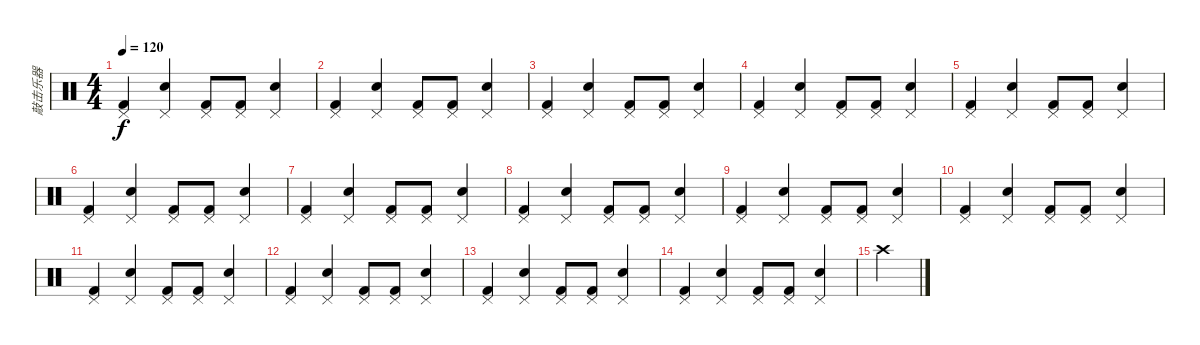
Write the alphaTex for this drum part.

\track ("敲击乐器" "敲击乐器") {instrument percussion}
\staff {score}
\articulation defaults
\ts (4 4)
\tempo 120
\clef neutral
\ks c
("Kick (hit) 2" "Pedal Hi-Hat (hit)").4{dy f} ("Snare (hit) 2" "Pedal Hi-Hat (hit)").4 ("Kick (hit) 2" "Pedal Hi-Hat (hit)").8 ("Kick (hit) 2" "Pedal Hi-Hat (hit)").8 ("Snare (hit) 2" "Pedal Hi-Hat (hit)").4 |
("Kick (hit) 2" "Pedal Hi-Hat (hit)").4 ("Snare (hit) 2" "Pedal Hi-Hat (hit)").4 ("Kick (hit) 2" "Pedal Hi-Hat (hit)").8 ("Kick (hit) 2" "Pedal Hi-Hat (hit)").8 ("Snare (hit) 2" "Pedal Hi-Hat (hit)").4 |
("Kick (hit) 2" "Pedal Hi-Hat (hit)").4 ("Snare (hit) 2" "Pedal Hi-Hat (hit)").4 ("Kick (hit) 2" "Pedal Hi-Hat (hit)").8 ("Kick (hit) 2" "Pedal Hi-Hat (hit)").8 ("Snare (hit) 2" "Pedal Hi-Hat (hit)").4 |
("Kick (hit) 2" "Pedal Hi-Hat (hit)").4 ("Snare (hit) 2" "Pedal Hi-Hat (hit)").4 ("Kick (hit) 2" "Pedal Hi-Hat (hit)").8 ("Kick (hit) 2" "Pedal Hi-Hat (hit)").8 ("Snare (hit) 2" "Pedal Hi-Hat (hit)").4 |
("Kick (hit) 2" "Pedal Hi-Hat (hit)").4 ("Snare (hit) 2" "Pedal Hi-Hat (hit)").4 ("Kick (hit) 2" "Pedal Hi-Hat (hit)").8 ("Kick (hit) 2" "Pedal Hi-Hat (hit)").8 ("Snare (hit) 2" "Pedal Hi-Hat (hit)").4 |
("Kick (hit) 2" "Pedal Hi-Hat (hit)").4 ("Snare (hit) 2" "Pedal Hi-Hat (hit)").4 ("Kick (hit) 2" "Pedal Hi-Hat (hit)").8 ("Kick (hit) 2" "Pedal Hi-Hat (hit)").8 ("Snare (hit) 2" "Pedal Hi-Hat (hit)").4 |
("Kick (hit) 2" "Pedal Hi-Hat (hit)").4 ("Snare (hit) 2" "Pedal Hi-Hat (hit)").4 ("Kick (hit) 2" "Pedal Hi-Hat (hit)").8 ("Kick (hit) 2" "Pedal Hi-Hat (hit)").8 ("Snare (hit) 2" "Pedal Hi-Hat (hit)").4 |
("Kick (hit) 2" "Pedal Hi-Hat (hit)").4 ("Snare (hit) 2" "Pedal Hi-Hat (hit)").4 ("Kick (hit) 2" "Pedal Hi-Hat (hit)").8 ("Kick (hit) 2" "Pedal Hi-Hat (hit)").8 ("Snare (hit) 2" "Pedal Hi-Hat (hit)").4 |
("Kick (hit) 2" "Pedal Hi-Hat (hit)").4 ("Snare (hit) 2" "Pedal Hi-Hat (hit)").4 ("Kick (hit) 2" "Pedal Hi-Hat (hit)").8 ("Kick (hit) 2" "Pedal Hi-Hat (hit)").8 ("Snare (hit) 2" "Pedal Hi-Hat (hit)").4 |
("Kick (hit) 2" "Pedal Hi-Hat (hit)").4 ("Snare (hit) 2" "Pedal Hi-Hat (hit)").4 ("Kick (hit) 2" "Pedal Hi-Hat (hit)").8 ("Kick (hit) 2" "Pedal Hi-Hat (hit)").8 ("Snare (hit) 2" "Pedal Hi-Hat (hit)").4 |
("Kick (hit) 2" "Pedal Hi-Hat (hit)").4 ("Snare (hit) 2" "Pedal Hi-Hat (hit)").4 ("Kick (hit) 2" "Pedal Hi-Hat (hit)").8 ("Kick (hit) 2" "Pedal Hi-Hat (hit)").8 ("Snare (hit) 2" "Pedal Hi-Hat (hit)").4 |
("Kick (hit) 2" "Pedal Hi-Hat (hit)").4 ("Snare (hit) 2" "Pedal Hi-Hat (hit)").4 ("Kick (hit) 2" "Pedal Hi-Hat (hit)").8 ("Kick (hit) 2" "Pedal Hi-Hat (hit)").8 ("Snare (hit) 2" "Pedal Hi-Hat (hit)").4 |
("Kick (hit) 2" "Pedal Hi-Hat (hit)").4 ("Snare (hit) 2" "Pedal Hi-Hat (hit)").4 ("Kick (hit) 2" "Pedal Hi-Hat (hit)").8 ("Kick (hit) 2" "Pedal Hi-Hat (hit)").8 ("Snare (hit) 2" "Pedal Hi-Hat (hit)").4 |
("Kick (hit) 2" "Pedal Hi-Hat (hit)").4 ("Snare (hit) 2" "Pedal Hi-Hat (hit)").4 ("Kick (hit) 2" "Pedal Hi-Hat (hit)").8 ("Kick (hit) 2" "Pedal Hi-Hat (hit)").8 ("Snare (hit) 2" "Pedal Hi-Hat (hit)").4 |
"Crash high (hit)".4
